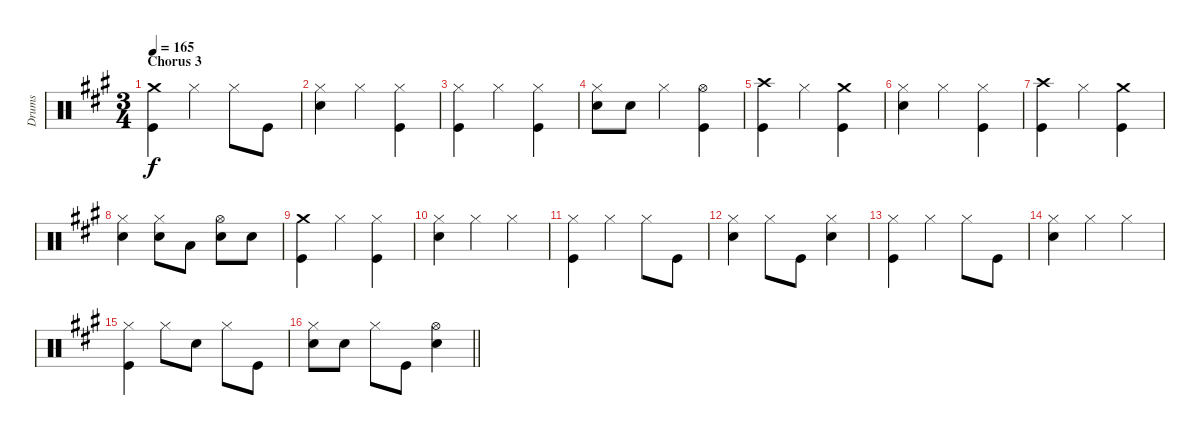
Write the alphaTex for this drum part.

\track ("Drums" "Drums") {instrument percussion}
\staff {score}
\articulation defaults
\ts (3 4)
\section ("" "Chorus 3")
\tempo 165
\clef neutral
\ks a
("Crash medium (hit)" "Kick (hit)").4{dy f} "Hi-Hat (closed)".4 "Hi-Hat (closed)".8 "Kick (hit)".8 |
("Hi-Hat (closed)" "Snare (hit) 2").4 "Hi-Hat (closed)".4 ("Hi-Hat (closed)" "Kick (hit)").4 |
("Hi-Hat (closed)" "Kick (hit)").4 "Hi-Hat (closed)".4 ("Hi-Hat (closed)" "Kick (hit)").4 |
("Hi-Hat (closed)" "Snare (hit) 2").8 "Snare (hit) 2".8 "Hi-Hat (closed)".4 ("Hi-Hat (open)" "Kick (hit)").4 |
("Crash high (hit)" "Kick (hit)").4 "Hi-Hat (closed)".4 ("Crash medium (hit)" "Kick (hit)").4 |
("Hi-Hat (closed)" "Snare (hit) 2").4 "Hi-Hat (closed)".4 ("Hi-Hat (closed)" "Kick (hit)").4 |
("Crash high (hit)" "Kick (hit)").4 "Hi-Hat (closed)".4 ("Crash medium (hit)" "Kick (hit)").4 |
("Hi-Hat (closed)" "Snare (hit) 2").4 ("Hi-Hat (closed)" "Snare (hit) 2").8 "Low Tom (hit)".8 ("Hi-Hat (open)" "Snare (hit) 2").8 "Snare (hit) 2".8 |
("Crash medium (hit)" "Kick (hit)").4 "Hi-Hat (closed)".4 ("Hi-Hat (closed)" "Kick (hit)").4 |
("Hi-Hat (closed)" "Snare (hit) 2").4 "Hi-Hat (closed)".4 "Hi-Hat (closed)".4 |
("Hi-Hat (closed)" "Kick (hit)").4 "Hi-Hat (closed)".4 "Hi-Hat (closed)".8 "Kick (hit)".8 |
("Hi-Hat (closed)" "Snare (hit) 2").4 "Hi-Hat (closed)".8 "Kick (hit)".8 ("Hi-Hat (closed)" "Snare (hit) 2").4 |
("Hi-Hat (closed)" "Kick (hit)").4 "Hi-Hat (closed)".4 "Hi-Hat (closed)".8 "Kick (hit)".8 |
("Hi-Hat (closed)" "Snare (hit) 2").4 "Hi-Hat (closed)".4 "Hi-Hat (closed)".4 |
("Hi-Hat (closed)" "Kick (hit)").4 "Hi-Hat (closed)".8 "Snare (hit) 2".8 "Hi-Hat (closed)".8 "Kick (hit)".8 |
\barLineRight lightlight
("Hi-Hat (closed)" "Snare (hit) 2").8 "Snare (hit) 2".8 "Hi-Hat (closed)".8 "Kick (hit)".8 ("Hi-Hat (open)" "Snare (hit) 2").4
